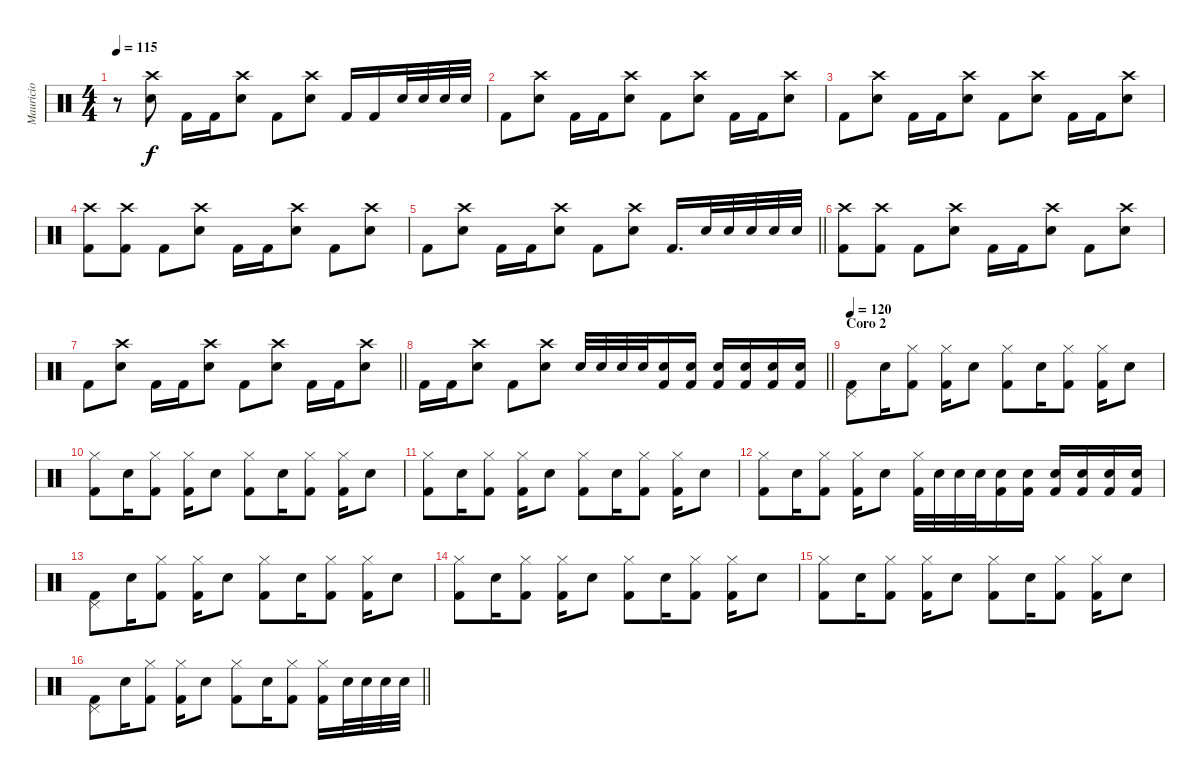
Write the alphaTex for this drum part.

\track ("Mauricio" "Mauricio") {instrument percussion}
\staff {score}
\articulation defaults
\ts (4 4)
\tempo 115
\clef neutral
\ks c
r.8{dy f} ("Crash high (hit)" "Electric Snare (hit)").8 "Kick (hit) 2".16 "Kick (hit) 2".16 ("Crash high (hit)" "Electric Snare (hit)").8 "Kick (hit) 2".8 ("Crash high (hit)" "Electric Snare (hit)").8 "Kick (hit) 2".16 "Kick (hit) 2".16 "Electric Snare (hit)".32 "Electric Snare (hit)".32 "Electric Snare (hit)".32 "Electric Snare (hit)".32 |
"Kick (hit) 2".8 ("Crash high (hit)" "Electric Snare (hit)").8 "Kick (hit) 2".16 "Kick (hit) 2".16 ("Crash high (hit)" "Electric Snare (hit)").8 "Kick (hit) 2".8 ("Crash high (hit)" "Electric Snare (hit)").8 "Kick (hit) 2".16 "Kick (hit) 2".16 ("Crash high (hit)" "Electric Snare (hit)").8 |
"Kick (hit) 2".8 ("Crash high (hit)" "Electric Snare (hit)").8 "Kick (hit) 2".16 "Kick (hit) 2".16 ("Crash high (hit)" "Electric Snare (hit)").8 "Kick (hit) 2".8 ("Crash high (hit)" "Electric Snare (hit)").8 "Kick (hit) 2".16 "Kick (hit) 2".16 ("Crash high (hit)" "Electric Snare (hit)").8 |
("Crash high (hit)" "Kick (hit) 2").8 ("Crash high (hit)" "Kick (hit) 2").8 "Kick (hit) 2".8 ("Crash high (hit)" "Electric Snare (hit)").8 "Kick (hit) 2".16 "Kick (hit) 2".16 ("Crash high (hit)" "Electric Snare (hit)").8 "Kick (hit) 2".8 ("Crash high (hit)" "Electric Snare (hit)").8 |
\barLineRight lightlight "Kick (hit) 2".8
("Crash high (hit)" "Electric Snare (hit)").8 "Kick (hit) 2".16 "Kick (hit) 2".16 ("Crash high (hit)" "Electric Snare (hit)").8 "Kick (hit) 2".8 ("Crash high (hit)" "Electric Snare (hit)").8 "Kick (hit) 2".16{d} "Electric Snare (hit)".32 "Electric Snare (hit)".32 "Electric Snare (hit)".32 "Electric Snare (hit)".32 "Electric Snare (hit)".32 |
("Crash high (hit)" "Kick (hit) 2").8 ("Crash high (hit)" "Kick (hit) 2").8 "Kick (hit) 2".8 ("Crash high (hit)" "Electric Snare (hit)").8 "Kick (hit) 2".16 "Kick (hit) 2".16 ("Crash high (hit)" "Electric Snare (hit)").8 "Kick (hit) 2".8 ("Crash high (hit)" "Electric Snare (hit)").8 |
\barLineRight lightlight "Kick (hit) 2".8
("Crash high (hit)" "Electric Snare (hit)").8 "Kick (hit) 2".16 "Kick (hit) 2".16 ("Crash high (hit)" "Electric Snare (hit)").8 "Kick (hit) 2".8 ("Crash high (hit)" "Electric Snare (hit)").8 "Kick (hit) 2".16 "Kick (hit) 2".16 ("Crash high (hit)" "Electric Snare (hit)").8 |
\barLineRight lightlight "Kick (hit) 2".16 "Kick (hit) 2".16
("Crash high (hit)" "Electric Snare (hit)").8 "Kick (hit) 2".8 ("Crash high (hit)" "Electric Snare (hit)").8 "Electric Snare (hit)".32 "Electric Snare (hit)".32 "Electric Snare (hit)".32 "Electric Snare (hit)".32 ("Kick (hit) 2" "Electric Snare (hit)").16 ("Kick (hit) 2" "Electric Snare (hit)").16 ("Kick (hit) 2" "Electric Snare (hit)").16 ("Kick (hit) 2" "Electric Snare (hit)").16 ("Kick (hit) 2" "Electric Snare (hit)").16 ("Kick (hit) 2" "Electric Snare (hit)").16 |
\section ("" "Coro 2")
\tempo 120
("Pedal Hi-Hat (hit)" "Kick (hit) 2").8 "Electric Snare (hit)".16 ("Hi-Hat (closed)" "Kick (hit) 2").8 ("Hi-Hat (closed)" "Kick (hit) 2").16 "Electric Snare (hit)".8 ("Hi-Hat (closed)" "Kick (hit) 2").8 "Electric Snare (hit)".16 ("Hi-Hat (closed)" "Kick (hit) 2").8 ("Hi-Hat (closed)" "Kick (hit) 2").16 "Electric Snare (hit)".8 |
("Hi-Hat (closed)" "Kick (hit) 2").8 "Electric Snare (hit)".16 ("Hi-Hat (closed)" "Kick (hit) 2").8 ("Hi-Hat (closed)" "Kick (hit) 2").16 "Electric Snare (hit)".8 ("Hi-Hat (closed)" "Kick (hit) 2").8 "Electric Snare (hit)".16 ("Hi-Hat (closed)" "Kick (hit) 2").8 ("Hi-Hat (closed)" "Kick (hit) 2").16 "Electric Snare (hit)".8 |
("Hi-Hat (closed)" "Kick (hit) 2").8 "Electric Snare (hit)".16 ("Hi-Hat (closed)" "Kick (hit) 2").8 ("Hi-Hat (closed)" "Kick (hit) 2").16 "Electric Snare (hit)".8 ("Hi-Hat (closed)" "Kick (hit) 2").8 "Electric Snare (hit)".16 ("Hi-Hat (closed)" "Kick (hit) 2").8 ("Hi-Hat (closed)" "Kick (hit) 2").16 "Electric Snare (hit)".8 |
("Hi-Hat (closed)" "Kick (hit) 2").8 "Electric Snare (hit)".16 ("Hi-Hat (closed)" "Kick (hit) 2").8 ("Hi-Hat (closed)" "Kick (hit) 2").16 "Electric Snare (hit)".8 ("Hi-Hat (closed)" "Kick (hit) 2").32 "Electric Snare (hit)".32 "Electric Snare (hit)".32 "Electric Snare (hit)".32 ("Kick (hit) 2" "Electric Snare (hit)").16 ("Kick (hit) 2" "Electric Snare (hit)").16 ("Kick (hit) 2" "Electric Snare (hit)").16 ("Kick (hit) 2" "Electric Snare (hit)").16 ("Kick (hit) 2" "Electric Snare (hit)").16 ("Kick (hit) 2" "Electric Snare (hit)").16 |
("Pedal Hi-Hat (hit)" "Kick (hit) 2").8 "Electric Snare (hit)".16 ("Hi-Hat (closed)" "Kick (hit) 2").8 ("Hi-Hat (closed)" "Kick (hit) 2").16 "Electric Snare (hit)".8 ("Hi-Hat (closed)" "Kick (hit) 2").8 "Electric Snare (hit)".16 ("Hi-Hat (closed)" "Kick (hit) 2").8 ("Hi-Hat (closed)" "Kick (hit) 2").16 "Electric Snare (hit)".8 |
("Hi-Hat (closed)" "Kick (hit) 2").8 "Electric Snare (hit)".16 ("Hi-Hat (closed)" "Kick (hit) 2").8 ("Hi-Hat (closed)" "Kick (hit) 2").16 "Electric Snare (hit)".8 ("Hi-Hat (closed)" "Kick (hit) 2").8 "Electric Snare (hit)".16 ("Hi-Hat (closed)" "Kick (hit) 2").8 ("Hi-Hat (closed)" "Kick (hit) 2").16 "Electric Snare (hit)".8 |
("Hi-Hat (closed)" "Kick (hit) 2").8 "Electric Snare (hit)".16 ("Hi-Hat (closed)" "Kick (hit) 2").8 ("Hi-Hat (closed)" "Kick (hit) 2").16 "Electric Snare (hit)".8 ("Hi-Hat (closed)" "Kick (hit) 2").8 "Electric Snare (hit)".16 ("Hi-Hat (closed)" "Kick (hit) 2").8 ("Hi-Hat (closed)" "Kick (hit) 2").16 "Electric Snare (hit)".8 |
\barLineRight lightlight
("Pedal Hi-Hat (hit)" "Kick (hit) 2").8 "Electric Snare (hit)".16 ("Hi-Hat (closed)" "Kick (hit) 2").8 ("Hi-Hat (closed)" "Kick (hit) 2").16 "Electric Snare (hit)".8 ("Hi-Hat (closed)" "Kick (hit) 2").8 "Electric Snare (hit)".16 ("Hi-Hat (closed)" "Kick (hit) 2").8 ("Hi-Hat (closed)" "Kick (hit) 2").16 "Electric Snare (hit)".32 "Electric Snare (hit)".32 "Electric Snare (hit)".32 "Electric Snare (hit)".32
